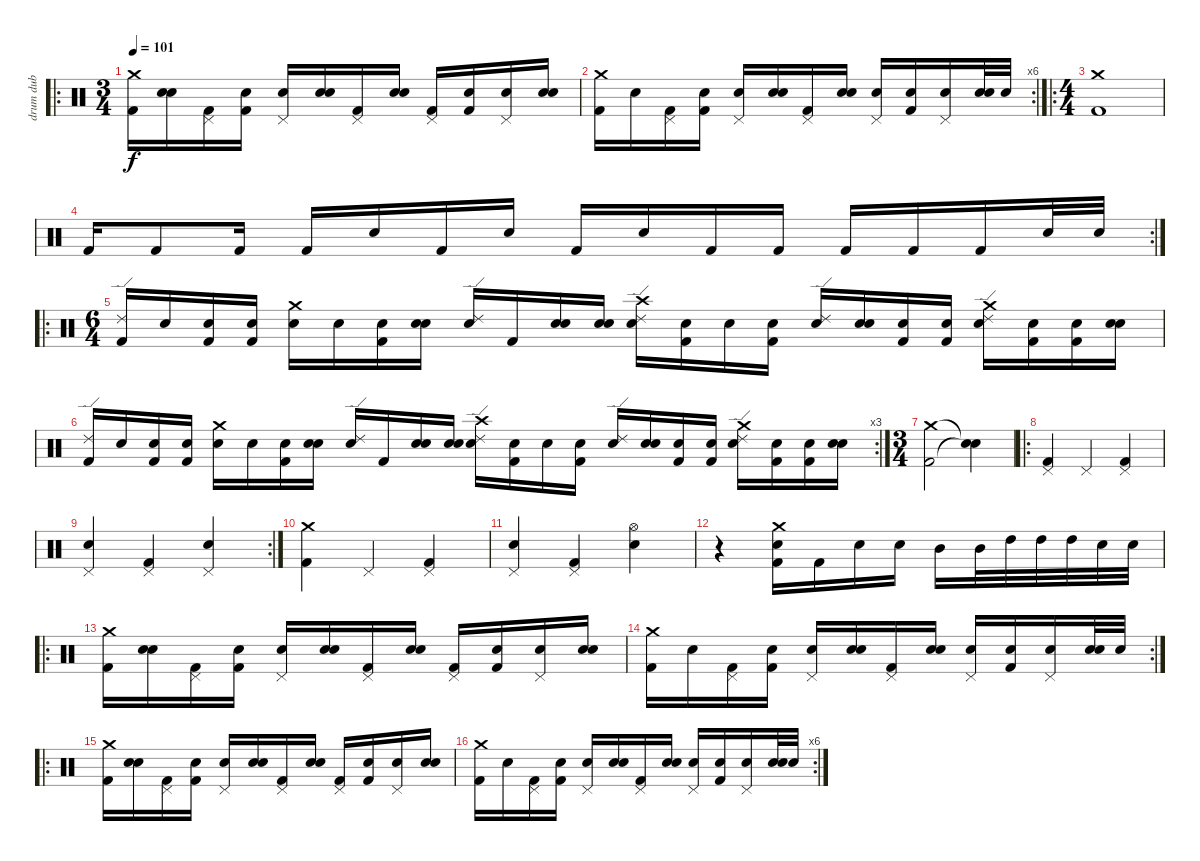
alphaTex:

\track ("drum dub" "drum dub") {instrument percussion}
\staff {score}
\articulation defaults
\ro
\ts (3 4)
\tempo 101
\clef neutral
\ks c
("Crash medium (hit)" "Kick (hit) 2").16{dy f} ("Snare (hit)" "Snare (hit)").16 ("Pedal Hi-Hat (hit)" "Kick (hit) 2").16 ("Snare (hit)" "Kick (hit) 2").16 ("Pedal Hi-Hat (hit)" "Electric Snare (hit)").16 ("Snare (hit)" "Snare (hit)").16 ("Pedal Hi-Hat (hit)" "Kick (hit) 2").16 ("Snare (hit)" "Snare (hit)").16 ("Pedal Hi-Hat (hit)" "Kick (hit) 2").16 ("Snare (hit)" "Kick (hit) 2").16 ("Pedal Hi-Hat (hit)" "Electric Snare (hit)").16 ("Snare (hit)" "Electric Snare (hit)").16 |
\rc 6
("Crash medium (hit)" "Kick (hit) 2").16 "Snare (hit)".16 ("Pedal Hi-Hat (hit)" "Kick (hit) 2").16 ("Snare (hit)" "Kick (hit) 2").16 ("Pedal Hi-Hat (hit)" "Electric Snare (hit)").16 ("Snare (hit)" "Snare (hit)").16 ("Pedal Hi-Hat (hit)" "Kick (hit) 2").16 ("Snare (hit)" "Snare (hit)").16 ("Pedal Hi-Hat (hit)" "Snare (hit)").16 ("Snare (hit)" "Kick (hit) 2").16 ("Pedal Hi-Hat (hit)" "Electric Snare (hit)").16 ("Snare (hit)" "Electric Snare (hit)").32 "Electric Snare (hit)".32 |
\ro
\ts (4 4)
("Crash medium (hit)" "Kick (hit) 2").1 |
\rc 2 "Kick (hit) 2".16 "Kick (hit) 2".8 "Kick (hit) 2".16 "Kick (hit) 2".16 "Electric Snare (hit)".16 "Kick (hit) 2".16 "Snare (hit)".16 "Kick (hit) 2".16 "Snare (hit)".16 "Kick (hit) 2".16 "Kick (hit) 2".16 "Kick (hit) 2".16 "Kick (hit) 2".16 "Kick (hit) 2".16 "Electric Snare (hit)".32 "Electric Snare (hit)".32
|
\ro
\ts (6 4)
("Ride (edge) 2" "Kick (hit) 2").16 "Snare (hit)".16 ("Snare (hit)" "Kick (hit) 2").16 ("Snare (hit)" "Kick (hit) 2").16 ("Crash medium (hit)" "Electric Snare (hit)").16 "Snare (hit)".16 ("Snare (hit)" "Kick (hit) 2").16 ("Snare (hit)" "Snare (hit)").16 ("Ride (edge) 2" "Snare (hit)").16 "Kick (hit) 2".16 ("Snare (hit)" "Snare (hit)").16 ("Snare (hit)" "Snare (hit)").16 ("Crash high (hit)" "Electric Snare (hit)" "Ride (edge) 2").16 ("Snare (hit)" "Kick (hit) 2").16 "Snare (hit)".16 ("Snare (hit)" "Kick (hit) 2").16 ("Snare (hit)" "Ride (edge) 2").16 ("Snare (hit)" "Snare (hit)").16 ("Snare (hit)" "Kick (hit) 2").16 ("Snare (hit)" "Kick (hit) 2").16 ("Crash medium (hit)" "Electric Snare (hit)" "Ride (edge) 2").16 ("Snare (hit)" "Kick (hit) 2").16 ("Snare (hit)" "Kick (hit) 2").16 ("Snare (hit)" "Snare (hit)").16 |
\rc 3
("Ride (edge) 2" "Kick (hit) 2").16 "Snare (hit)".16 ("Snare (hit)" "Kick (hit) 2").16 ("Snare (hit)" "Kick (hit) 2").16 ("Crash medium (hit)" "Electric Snare (hit)").16 "Snare (hit)".16 ("Snare (hit)" "Kick (hit) 2").16 ("Snare (hit)" "Snare (hit)").16 ("Ride (edge) 2" "Snare (hit)").16 "Kick (hit) 2".16 ("Snare (hit)" "Snare (hit)").16 ("Snare (hit)" "Snare (hit)").16 ("Crash high (hit)" "Electric Snare (hit)" "Ride (edge) 2").16 ("Snare (hit)" "Kick (hit) 2").16 "Snare (hit)".16 ("Snare (hit)" "Kick (hit) 2").16 ("Snare (hit)" "Ride (edge) 2").16 ("Snare (hit)" "Snare (hit)").16 ("Snare (hit)" "Kick (hit) 2").16 ("Snare (hit)" "Kick (hit) 2").16 ("Crash medium (hit)" "Electric Snare (hit)" "Ride (edge) 2").16 ("Snare (hit)" "Kick (hit) 2").16 ("Snare (hit)" "Kick (hit) 2").16 ("Snare (hit)" "Snare (hit)").16 |
\ts (3 4)
("Crash medium (hit)" "Kick (hit) 2").2 ("Snare (hit)"{t} "Snare (hit)"{t}).4 |
\ro
("Pedal Hi-Hat (hit)" "Kick (hit) 2").4 "Pedal Hi-Hat (hit)".4 ("Pedal Hi-Hat (hit)" "Kick (hit) 2").4 |
\rc 2
("Pedal Hi-Hat (hit)" "Snare (hit)").4 ("Pedal Hi-Hat (hit)" "Kick (hit) 2").4 ("Pedal Hi-Hat (hit)" "Snare (hit)").4 |
("Crash medium (hit)" "Kick (hit) 2").4 "Pedal Hi-Hat (hit)".4 ("Pedal Hi-Hat (hit)" "Kick (hit) 2").4 |
("Pedal Hi-Hat (hit)" "Snare (hit)").4 ("Pedal Hi-Hat (hit)" "Kick (hit) 2").4 ("Hi-Hat (open)" "Snare (hit)").4 |
r.4 ("Crash medium (hit)" "Kick (hit) 2" "Electric Snare (hit)").16 "Kick (hit) 2".16 "Electric Snare (hit)".16 "Electric Snare (hit)".16 "Mid Tom (hit)".16 "Mid Tom (hit)".32 "High Tom (hit)".32 "High Tom (hit)".32 "High Tom (hit)".32 "Electric Snare (hit)".32 "Electric Snare (hit)".32 |
\ro
("Crash medium (hit)" "Kick (hit) 2").16 ("Snare (hit)" "Snare (hit)").16 ("Pedal Hi-Hat (hit)" "Kick (hit) 2").16 ("Snare (hit)" "Kick (hit) 2").16 ("Pedal Hi-Hat (hit)" "Electric Snare (hit)").16 ("Snare (hit)" "Snare (hit)").16 ("Pedal Hi-Hat (hit)" "Kick (hit) 2").16 ("Snare (hit)" "Snare (hit)").16 ("Pedal Hi-Hat (hit)" "Kick (hit) 2").16 ("Snare (hit)" "Kick (hit) 2").16 ("Pedal Hi-Hat (hit)" "Electric Snare (hit)").16 ("Snare (hit)" "Electric Snare (hit)").16 |
\rc 2
("Crash medium (hit)" "Kick (hit) 2").16 "Snare (hit)".16 ("Pedal Hi-Hat (hit)" "Kick (hit) 2").16 ("Snare (hit)" "Kick (hit) 2").16 ("Pedal Hi-Hat (hit)" "Electric Snare (hit)").16 ("Snare (hit)" "Snare (hit)").16 ("Pedal Hi-Hat (hit)" "Kick (hit) 2").16 ("Snare (hit)" "Snare (hit)").16 ("Pedal Hi-Hat (hit)" "Snare (hit)").16 ("Snare (hit)" "Kick (hit) 2").16 ("Pedal Hi-Hat (hit)" "Electric Snare (hit)").16 ("Snare (hit)" "Electric Snare (hit)").32 "Electric Snare (hit)".32 |
\ro
("Crash medium (hit)" "Kick (hit) 2").16 ("Snare (hit)" "Snare (hit)").16 ("Pedal Hi-Hat (hit)" "Kick (hit) 2").16 ("Snare (hit)" "Kick (hit) 2").16 ("Pedal Hi-Hat (hit)" "Electric Snare (hit)").16 ("Snare (hit)" "Snare (hit)").16 ("Pedal Hi-Hat (hit)" "Kick (hit) 2").16 ("Snare (hit)" "Snare (hit)").16 ("Pedal Hi-Hat (hit)" "Kick (hit) 2").16 ("Snare (hit)" "Kick (hit) 2").16 ("Pedal Hi-Hat (hit)" "Electric Snare (hit)").16 ("Snare (hit)" "Electric Snare (hit)").16 |
\rc 6
("Crash medium (hit)" "Kick (hit) 2").16 "Snare (hit)".16 ("Pedal Hi-Hat (hit)" "Kick (hit) 2").16 ("Snare (hit)" "Kick (hit) 2").16 ("Pedal Hi-Hat (hit)" "Electric Snare (hit)").16 ("Snare (hit)" "Snare (hit)").16 ("Pedal Hi-Hat (hit)" "Kick (hit) 2").16 ("Snare (hit)" "Snare (hit)").16 ("Pedal Hi-Hat (hit)" "Snare (hit)").16 ("Snare (hit)" "Kick (hit) 2").16 ("Pedal Hi-Hat (hit)" "Electric Snare (hit)").16 ("Snare (hit)" "Electric Snare (hit)").32 "Electric Snare (hit)".32
